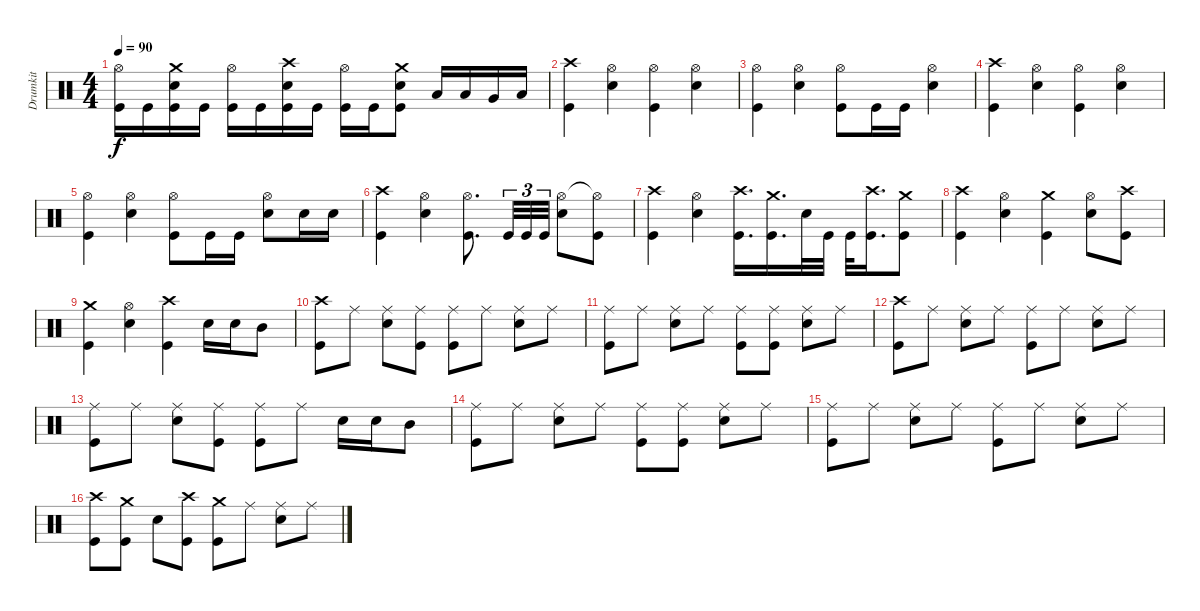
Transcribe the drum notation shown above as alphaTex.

\track ("Drumkit" "Drumkit") {instrument percussion}
\staff {score}
\articulation defaults
\ts (4 4)
\tempo 90
\clef neutral
\ks c
("Hi-Hat (open)" "Kick (hit)").16{dy f} "Kick (hit)".16 ("Crash medium (hit)" "Snare (hit) 2" "Kick (hit)").16 "Kick (hit)".16 ("Hi-Hat (open)" "Kick (hit)").16 "Kick (hit)".16 ("Crash high (hit)" "Snare (hit) 2" "Kick (hit)").16 "Kick (hit)".16 ("Hi-Hat (open)" "Kick (hit)").16 "Kick (hit)".16 ("Crash medium (hit)" "Snare (hit) 2" "Kick (hit)").8 "Low Tom (hit)".16 "Low Tom (hit)".16 "Very Low Tom (hit)".16 "Low Floor Tom (hit)".16 |
("Crash high (hit)" "Kick (hit)").4 ("Hi-Hat (open)" "Snare (hit) 2").4 ("Hi-Hat (open)" "Kick (hit)").4 ("Hi-Hat (open)" "Snare (hit) 2").4 |
("Hi-Hat (open)" "Kick (hit)").4 ("Hi-Hat (open)" "Snare (hit) 2").4 ("Hi-Hat (open)" "Kick (hit)").8 "Kick (hit)".16 "Kick (hit)".16 ("Hi-Hat (open)" "Snare (hit) 2").4 |
("Crash high (hit)" "Kick (hit)").4 ("Hi-Hat (open)" "Snare (hit) 2").4 ("Hi-Hat (open)" "Kick (hit)").4 ("Hi-Hat (open)" "Snare (hit) 2").4 |
("Hi-Hat (open)" "Kick (hit)").4 ("Hi-Hat (open)" "Snare (hit) 2").4 ("Hi-Hat (open)" "Kick (hit)").8 "Kick (hit)".16 "Kick (hit)".16 ("Hi-Hat (open)" "Snare (hit) 2").8 "Snare (hit) 2".16 "Snare (hit) 2".16 |
("Crash high (hit)" "Kick (hit)").4 ("Hi-Hat (open)" "Snare (hit) 2").4 ("Hi-Hat (open)" "Kick (hit)").8{d} "Kick (hit)".32{tu (3 2)} "Kick (hit)".32{tu (3 2)} "Kick (hit)".32{tu (3 2)} ("Hi-Hat (open)" "Snare (hit) 2").8 ("Hi-Hat (open)"{t} "Kick (hit)").8 |
("Crash high (hit)" "Kick (hit)").4 ("Hi-Hat (open)" "Snare (hit) 2").4 ("Crash high (hit)" "Kick (hit)").16{d} ("Crash medium (hit)" "Kick (hit)").16{d} "Snare (hit) 2".32 "Kick (hit)".32 "Kick (hit)".32 ("Crash high (hit)" "Kick (hit)").16{d} ("Crash medium (hit)" "Kick (hit)").8 |
("Crash high (hit)" "Kick (hit)").4 ("Hi-Hat (open)" "Snare (hit) 2").4 ("Crash medium (hit)" "Kick (hit)").4 ("Hi-Hat (open)" "Snare (hit) 2").8 ("Crash high (hit)" "Kick (hit)").8 |
("Crash medium (hit)" "Kick (hit)").4 ("Hi-Hat (open)" "Snare (hit) 2").4 ("Crash high (hit)" "Kick (hit)").4 "Snare (hit) 2".16 "Snare (hit) 2".16 "Mid Tom (hit)".8 |
("Crash high (hit)" "Kick (hit)").8 "Ride (middle)".8 ("Ride (middle)" "Snare (hit) 2").8 ("Ride (middle)" "Kick (hit)").8 ("Ride (middle)" "Kick (hit)").8 "Ride (middle)".8 ("Ride (middle)" "Snare (hit) 2").8 "Ride (middle)".8 |
("Ride (middle)" "Kick (hit)").8 "Ride (middle)".8 ("Ride (middle)" "Snare (hit) 2").8 "Ride (middle)".8 ("Ride (middle)" "Kick (hit)").8 ("Ride (middle)" "Kick (hit)").8 ("Ride (middle)" "Snare (hit) 2").8 "Ride (middle)".8 |
("Crash high (hit)" "Kick (hit)").8 "Ride (middle)".8 ("Ride (middle)" "Snare (hit) 2").8 "Ride (middle)".8 ("Ride (middle)" "Kick (hit)").8 "Ride (middle)".8 ("Ride (middle)" "Snare (hit) 2").8 "Ride (middle)".8 |
("Ride (middle)" "Kick (hit)").8 "Ride (middle)".8 ("Ride (middle)" "Snare (hit) 2").8 ("Ride (middle)" "Kick (hit)").8 ("Ride (middle)" "Kick (hit)").8 "Ride (middle)".8 "Snare (hit) 2".16 "Snare (hit) 2".16 "Mid Tom (hit)".8 |
("Ride (middle)" "Kick (hit)").8 "Ride (middle)".8 ("Ride (middle)" "Snare (hit) 2").8 "Ride (middle)".8 ("Ride (middle)" "Kick (hit)").8 ("Ride (middle)" "Kick (hit)").8 ("Ride (middle)" "Snare (hit) 2").8 "Ride (middle)".8 |
("Ride (middle)" "Kick (hit)").8 "Ride (middle)".8 ("Ride (middle)" "Snare (hit) 2").8 "Ride (middle)".8 ("Ride (middle)" "Kick (hit)").8 "Ride (middle)".8 ("Ride (middle)" "Snare (hit) 2").8 "Ride (middle)".8 |
("Crash high (hit)" "Kick (hit)").8 ("Crash medium (hit)" "Kick (hit)").8 "Snare (hit) 2".8 ("Crash high (hit)" "Kick (hit)").8 ("Crash medium (hit)" "Kick (hit)").8 "Ride (middle)".8 ("Ride (middle)" "Snare (hit) 2").8 "Ride (middle)".8
